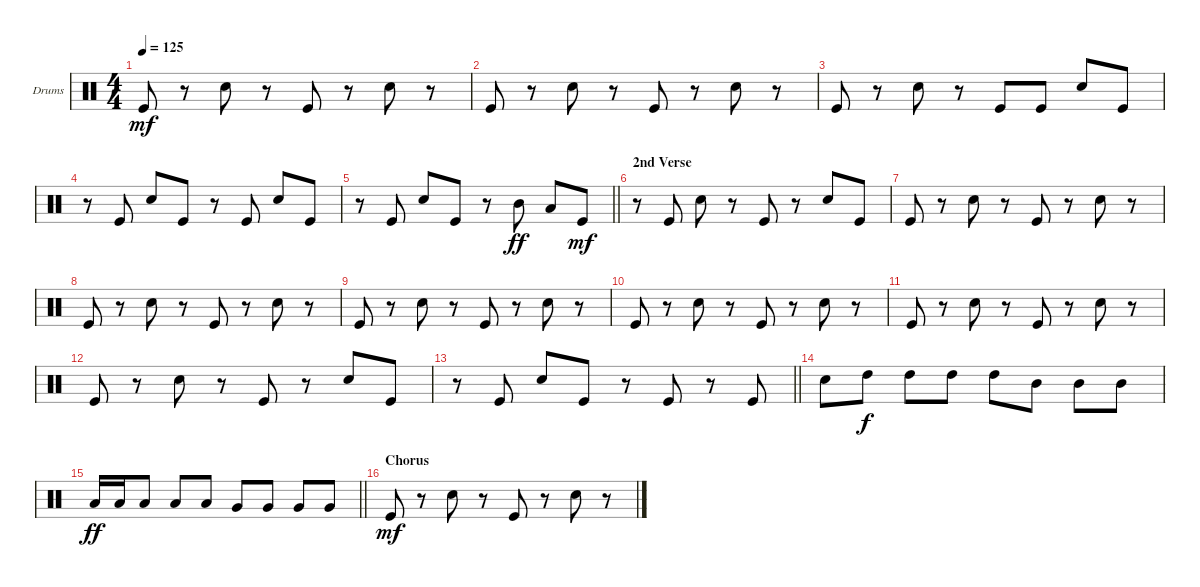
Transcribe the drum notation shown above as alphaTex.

\bracketExtendMode groupsimilarinstruments
\firstSystemTrackNameOrientation horizontal
\otherSystemsTrackNameOrientation horizontal
\track ("Nick Menza" "Drums") {instrument percussion}
\staff {score}
\articulation defaults
\ts (4 4)
\tempo 125
\clef neutral
\ks c "Kick (hit)".8{dy mf}
r.8 "Snare (hit) 2".8 r.8 "Kick (hit)".8 r.8 "Snare (hit) 2".8 r.8 |
"Kick (hit)".8 r.8 "Snare (hit) 2".8 r.8 "Kick (hit)".8 r.8 "Snare (hit) 2".8 r.8 |
"Kick (hit)".8 r.8 "Snare (hit) 2".8 r.8 "Kick (hit)".8 "Kick (hit)".8 "Snare (hit) 2".8 "Kick (hit)".8 |
r.8 "Kick (hit)".8 "Snare (hit) 2".8 "Kick (hit)".8 r.8 "Kick (hit)".8 "Snare (hit) 2".8 "Kick (hit)".8 |
\barLineRight lightlight
r.8 "Kick (hit)".8 "Snare (hit) 2".8 "Kick (hit)".8 r.8 "Mid Tom (hit)".8{dy ff} "Low Tom (hit)".8 "Kick (hit)".8{dy mf} |
\section ("" "2nd Verse")
r.8 "Kick (hit)".8 "Snare (hit) 2".8 r.8 "Kick (hit)".8 r.8 "Snare (hit) 2".8 "Kick (hit)".8 |
"Kick (hit)".8 r.8 "Snare (hit) 2".8 r.8 "Kick (hit)".8 r.8 "Snare (hit) 2".8 r.8 |
"Kick (hit)".8 r.8 "Snare (hit) 2".8 r.8 "Kick (hit)".8 r.8 "Snare (hit) 2".8 r.8 |
"Kick (hit)".8 r.8 "Snare (hit) 2".8 r.8 "Kick (hit)".8 r.8 "Snare (hit) 2".8 r.8 |
"Kick (hit)".8 r.8 "Snare (hit) 2".8 r.8 "Kick (hit)".8 r.8 "Snare (hit) 2".8 r.8 |
"Kick (hit)".8 r.8 "Snare (hit) 2".8 r.8 "Kick (hit)".8 r.8 "Snare (hit) 2".8 r.8 |
"Kick (hit)".8 r.8 "Snare (hit) 2".8 r.8 "Kick (hit)".8 r.8 "Snare (hit) 2".8 "Kick (hit)".8 |
\barLineRight lightlight
r.8 "Kick (hit)".8 "Snare (hit) 2".8 "Kick (hit)".8 r.8 "Kick (hit)".8 r.8 "Kick (hit)".8 |
"Snare (hit) 2".8 "High Tom (hit)".8{dy f} "High Tom (hit)".8 "High Tom (hit)".8 "High Tom (hit)".8 "Mid Tom (hit)".8 "Mid Tom (hit)".8 "Mid Tom (hit)".8 |
\barLineRight lightlight "Low Tom (hit)".16{dy ff} "Low Tom (hit)".16 "Low Tom (hit)".8 "Low Tom (hit)".8 "Low Tom (hit)".8 "Very Low Tom (hit)".8 "Very Low Tom (hit)".8 "Very Low Tom (hit)".8 "Very Low Tom (hit)".8
|
\section ("" "Chorus")
"Kick (hit)".8{dy mf} r.8 "Snare (hit) 2".8 r.8 "Kick (hit)".8 r.8 "Snare (hit) 2".8 r.8
